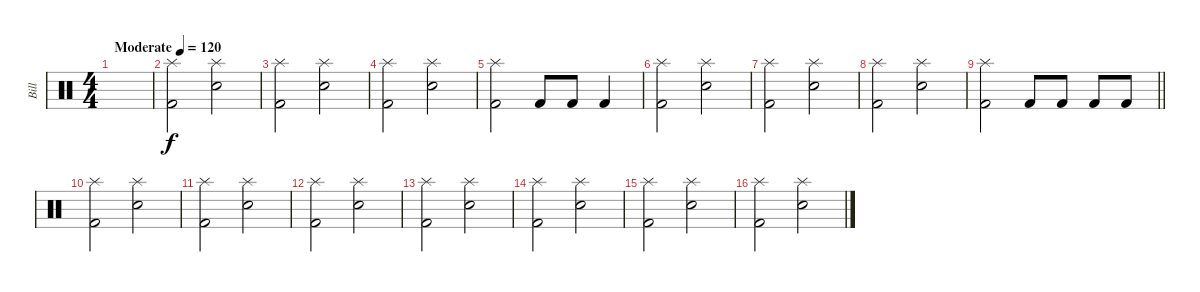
\track ("Bill" "Bill") {instrument percussion}
\staff {score}
\articulation defaults
\ts (4 4)
\tempo (120 "Moderate")
\clef neutral
\ks c
|
("Kick (hit) 2" "Splash (hit)").2 ("Snare (hit) 2" "Splash (hit)").2 |
("Kick (hit) 2" "Splash (hit)").2 ("Snare (hit) 2" "Splash (hit)").2 |
("Kick (hit) 2" "Splash (hit)").2 ("Snare (hit) 2" "Splash (hit)").2 |
("Kick (hit) 2" "Splash (hit)").2 "Kick (hit) 2".8 "Kick (hit) 2".8 "Kick (hit) 2".4 |
("Kick (hit) 2" "Splash (hit)").2 ("Snare (hit) 2" "Splash (hit)").2 |
("Kick (hit) 2" "Splash (hit)").2 ("Snare (hit) 2" "Splash (hit)").2 |
("Kick (hit) 2" "Splash (hit)").2 ("Snare (hit) 2" "Splash (hit)").2 |
\barLineRight lightlight
("Kick (hit) 2" "Splash (hit)").2 "Kick (hit) 2".8 "Kick (hit) 2".8 "Kick (hit) 2".8 "Kick (hit) 2".8 |
("Kick (hit) 2" "Splash (hit)").2 ("Snare (hit) 2" "Splash (hit)").2 |
("Kick (hit) 2" "Splash (hit)").2 ("Snare (hit) 2" "Splash (hit)").2 |
("Kick (hit) 2" "Splash (hit)").2 ("Snare (hit) 2" "Splash (hit)").2 |
("Kick (hit) 2" "Splash (hit)").2 ("Snare (hit) 2" "Splash (hit)").2 |
("Kick (hit) 2" "Splash (hit)").2 ("Snare (hit) 2" "Splash (hit)").2 |
("Kick (hit) 2" "Splash (hit)").2 ("Snare (hit) 2" "Splash (hit)").2 |
("Kick (hit) 2" "Splash (hit)").2 ("Snare (hit) 2" "Splash (hit)").2
